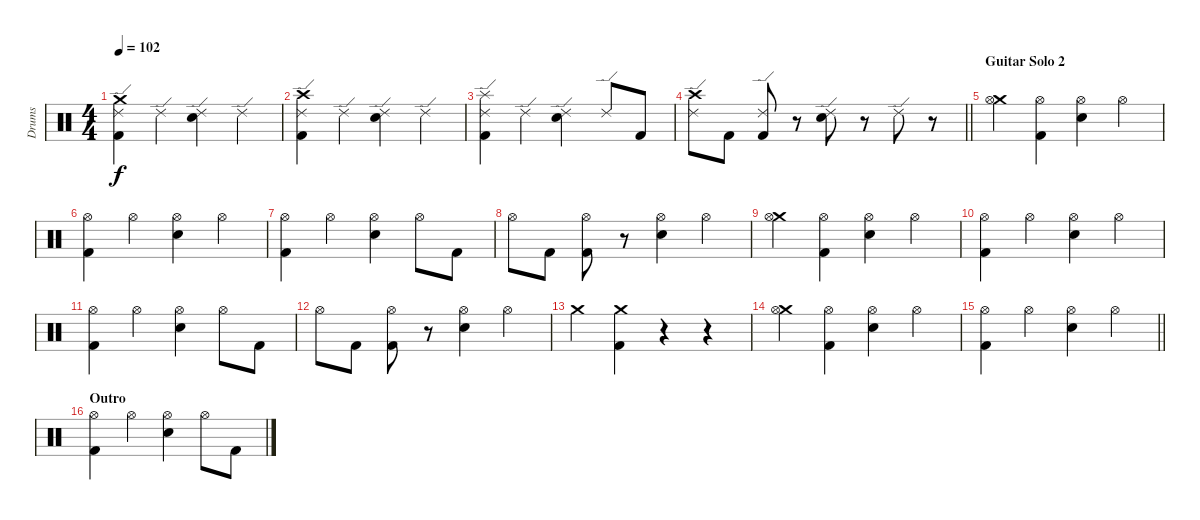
\track ("Drums" "Drums") {instrument percussion}
\staff {score}
\articulation defaults
\ts (4 4)
\tempo 102
\clef neutral
\ks c
("Crash medium (hit)" "Ride (edge) 2" "Kick (hit) 2").4{dy f} "Ride (edge) 2".4 ("Ride (edge) 2" "Electric Snare (hit)").4 "Ride (edge) 2".4 |
("Crash high (hit)" "Ride (edge) 2" "Kick (hit) 2").4 "Ride (edge) 2".4 ("Ride (edge) 2" "Electric Snare (hit)").4 "Ride (edge) 2".4 |
("Splash (hit)" "Ride (edge) 2" "Kick (hit) 2").4 "Ride (edge) 2".4 ("Ride (edge) 2" "Electric Snare (hit)").4 "Ride (edge) 2".8 "Kick (hit) 2".8 |
\barLineRight lightlight
("Crash high (hit)" "Ride (edge) 2").8 "Kick (hit) 2".8 ("Ride (edge) 2" "Kick (hit) 2").8 r.8 ("Ride (edge) 2" "Electric Snare (hit)").8 r.8 "Ride (edge) 2".8 r.8 |
\section ("" "Guitar Solo 2")
("Crash medium (hit)" "Hi-Hat (open)").4 ("Hi-Hat (open)" "Kick (hit) 2").4 ("Hi-Hat (open)" "Electric Snare (hit)").4 "Hi-Hat (open)".4 |
("Hi-Hat (open)" "Kick (hit) 2").4 "Hi-Hat (open)".4 ("Hi-Hat (open)" "Electric Snare (hit)").4 "Hi-Hat (open)".4 |
("Hi-Hat (open)" "Kick (hit) 2").4 "Hi-Hat (open)".4 ("Hi-Hat (open)" "Electric Snare (hit)").4 "Hi-Hat (open)".8 "Kick (hit) 2".8 |
"Hi-Hat (open)".8 "Kick (hit) 2".8 ("Hi-Hat (open)" "Kick (hit) 2").8 r.8 ("Hi-Hat (open)" "Electric Snare (hit)").4 "Hi-Hat (open)".4 |
("Crash medium (hit)" "Hi-Hat (open)").4 ("Hi-Hat (open)" "Kick (hit) 2").4 ("Hi-Hat (open)" "Electric Snare (hit)").4 "Hi-Hat (open)".4 |
("Hi-Hat (open)" "Kick (hit) 2").4 "Hi-Hat (open)".4 ("Hi-Hat (open)" "Electric Snare (hit)").4 "Hi-Hat (open)".4 |
("Hi-Hat (open)" "Kick (hit) 2").4 "Hi-Hat (open)".4 ("Hi-Hat (open)" "Electric Snare (hit)").4 "Hi-Hat (open)".8 "Kick (hit) 2".8 |
"Hi-Hat (open)".8 "Kick (hit) 2".8 ("Hi-Hat (open)" "Kick (hit) 2").8 r.8 ("Hi-Hat (open)" "Electric Snare (hit)").4 "Hi-Hat (open)".4 |
"Crash medium (hit)".4 ("Crash medium (hit)" "Kick (hit) 2").4 r.4 r.4 |
("Crash medium (hit)" "Hi-Hat (open)").4 ("Hi-Hat (open)" "Kick (hit) 2").4 ("Hi-Hat (open)" "Electric Snare (hit)").4 "Hi-Hat (open)".4 |
\barLineRight lightlight
("Hi-Hat (open)" "Kick (hit) 2").4 "Hi-Hat (open)".4 ("Hi-Hat (open)" "Electric Snare (hit)").4 "Hi-Hat (open)".4 |
\section ("" "Outro")
("Hi-Hat (open)" "Kick (hit) 2").4 "Hi-Hat (open)".4 ("Hi-Hat (open)" "Electric Snare (hit)").4 "Hi-Hat (open)".8 "Kick (hit) 2".8
